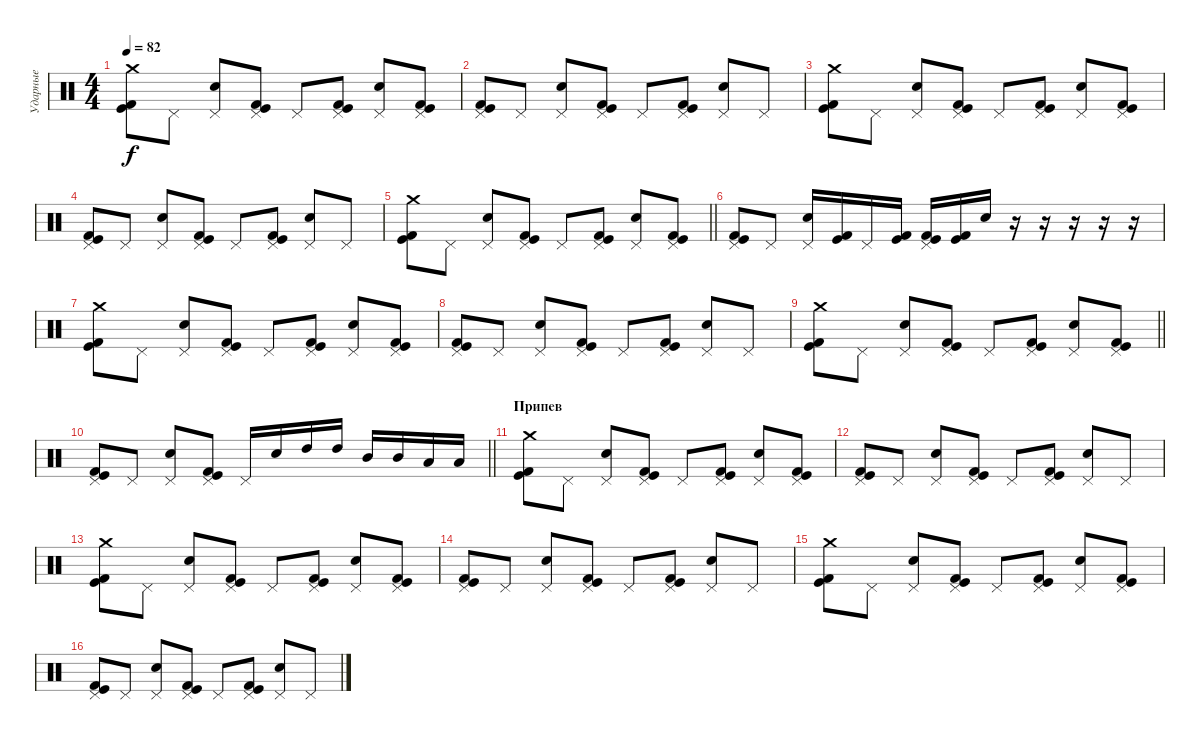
\track ("Ударные" "Ударные") {instrument percussion}
\staff {score}
\articulation defaults
\ts (4 4)
\tempo 82
\clef neutral
\ks c
("Crash medium (hit)" "Kick (hit)" "Kick (hit) 2").8{dy f} "Pedal Hi-Hat (hit)".8 ("Pedal Hi-Hat (hit)" "Electric Snare (hit)").8 ("Pedal Hi-Hat (hit)" "Kick (hit)" "Kick (hit) 2").8 "Pedal Hi-Hat (hit)".8 ("Pedal Hi-Hat (hit)" "Kick (hit)" "Kick (hit) 2").8 ("Pedal Hi-Hat (hit)" "Electric Snare (hit)").8 ("Pedal Hi-Hat (hit)" "Kick (hit)" "Kick (hit) 2").8 |
("Pedal Hi-Hat (hit)" "Kick (hit)" "Kick (hit) 2").8 "Pedal Hi-Hat (hit)".8 ("Pedal Hi-Hat (hit)" "Electric Snare (hit)").8 ("Pedal Hi-Hat (hit)" "Kick (hit)" "Kick (hit) 2").8 "Pedal Hi-Hat (hit)".8 ("Pedal Hi-Hat (hit)" "Kick (hit)" "Kick (hit) 2").8 ("Pedal Hi-Hat (hit)" "Electric Snare (hit)").8 "Pedal Hi-Hat (hit)".8 |
("Crash medium (hit)" "Kick (hit)" "Kick (hit) 2").8 "Pedal Hi-Hat (hit)".8 ("Pedal Hi-Hat (hit)" "Electric Snare (hit)").8 ("Pedal Hi-Hat (hit)" "Kick (hit)" "Kick (hit) 2").8 "Pedal Hi-Hat (hit)".8 ("Pedal Hi-Hat (hit)" "Kick (hit)" "Kick (hit) 2").8 ("Pedal Hi-Hat (hit)" "Electric Snare (hit)").8 ("Pedal Hi-Hat (hit)" "Kick (hit)" "Kick (hit) 2").8 |
("Pedal Hi-Hat (hit)" "Kick (hit)" "Kick (hit) 2").8 "Pedal Hi-Hat (hit)".8 ("Pedal Hi-Hat (hit)" "Electric Snare (hit)").8 ("Pedal Hi-Hat (hit)" "Kick (hit)" "Kick (hit) 2").8 "Pedal Hi-Hat (hit)".8 ("Pedal Hi-Hat (hit)" "Kick (hit)" "Kick (hit) 2").8 ("Pedal Hi-Hat (hit)" "Electric Snare (hit)").8 "Pedal Hi-Hat (hit)".8 |
\barLineRight lightlight
("Crash medium (hit)" "Kick (hit)" "Kick (hit) 2").8 "Pedal Hi-Hat (hit)".8 ("Pedal Hi-Hat (hit)" "Electric Snare (hit)").8 ("Pedal Hi-Hat (hit)" "Kick (hit)" "Kick (hit) 2").8 "Pedal Hi-Hat (hit)".8 ("Pedal Hi-Hat (hit)" "Kick (hit)" "Kick (hit) 2").8 ("Pedal Hi-Hat (hit)" "Electric Snare (hit)").8 ("Pedal Hi-Hat (hit)" "Kick (hit)" "Kick (hit) 2").8 |
("Pedal Hi-Hat (hit)" "Kick (hit)" "Kick (hit) 2").8 "Pedal Hi-Hat (hit)".8 ("Pedal Hi-Hat (hit)" "Electric Snare (hit)").16 ("Kick (hit)" "Kick (hit) 2").16 "Pedal Hi-Hat (hit)".16 ("Kick (hit)" "Kick (hit) 2").16 ("Pedal Hi-Hat (hit)" "Kick (hit)" "Kick (hit) 2").16 ("Kick (hit)" "Kick (hit) 2").16 "Electric Snare (hit)".16 r.16 r.16 r.16 r.16 r.16 |
("Crash medium (hit)" "Kick (hit)" "Kick (hit) 2").8 "Pedal Hi-Hat (hit)".8 ("Pedal Hi-Hat (hit)" "Electric Snare (hit)").8 ("Pedal Hi-Hat (hit)" "Kick (hit)" "Kick (hit) 2").8 "Pedal Hi-Hat (hit)".8 ("Pedal Hi-Hat (hit)" "Kick (hit)" "Kick (hit) 2").8 ("Pedal Hi-Hat (hit)" "Electric Snare (hit)").8 ("Pedal Hi-Hat (hit)" "Kick (hit)" "Kick (hit) 2").8 |
("Pedal Hi-Hat (hit)" "Kick (hit)" "Kick (hit) 2").8 "Pedal Hi-Hat (hit)".8 ("Pedal Hi-Hat (hit)" "Electric Snare (hit)").8 ("Pedal Hi-Hat (hit)" "Kick (hit)" "Kick (hit) 2").8 "Pedal Hi-Hat (hit)".8 ("Pedal Hi-Hat (hit)" "Kick (hit)" "Kick (hit) 2").8 ("Pedal Hi-Hat (hit)" "Electric Snare (hit)").8 "Pedal Hi-Hat (hit)".8 |
\barLineRight lightlight
("Crash medium (hit)" "Kick (hit)" "Kick (hit) 2").8 "Pedal Hi-Hat (hit)".8 ("Pedal Hi-Hat (hit)" "Electric Snare (hit)").8 ("Pedal Hi-Hat (hit)" "Kick (hit)" "Kick (hit) 2").8 "Pedal Hi-Hat (hit)".8 ("Pedal Hi-Hat (hit)" "Kick (hit)" "Kick (hit) 2").8 ("Pedal Hi-Hat (hit)" "Electric Snare (hit)").8 ("Pedal Hi-Hat (hit)" "Kick (hit)" "Kick (hit) 2").8 |
\barLineRight lightlight
("Pedal Hi-Hat (hit)" "Kick (hit)" "Kick (hit) 2").8 "Pedal Hi-Hat (hit)".8 ("Pedal Hi-Hat (hit)" "Electric Snare (hit)").8 ("Pedal Hi-Hat (hit)" "Kick (hit)" "Kick (hit) 2").8 "Pedal Hi-Hat (hit)".16 "Electric Snare (hit)".16 "High Tom (hit)".16 "High Tom (hit)".16 "Mid Tom (hit)".16 "Mid Tom (hit)".16 "Low Tom (hit)".16 "Low Tom (hit)".16 |
\section ("" "Припев")
("Crash medium (hit)" "Kick (hit)" "Kick (hit) 2").8 "Pedal Hi-Hat (hit)".8 ("Pedal Hi-Hat (hit)" "Electric Snare (hit)").8 ("Pedal Hi-Hat (hit)" "Kick (hit)" "Kick (hit) 2").8 "Pedal Hi-Hat (hit)".8 ("Pedal Hi-Hat (hit)" "Kick (hit)" "Kick (hit) 2").8 ("Pedal Hi-Hat (hit)" "Electric Snare (hit)").8 ("Pedal Hi-Hat (hit)" "Kick (hit)" "Kick (hit) 2").8 |
("Pedal Hi-Hat (hit)" "Kick (hit)" "Kick (hit) 2").8 "Pedal Hi-Hat (hit)".8 ("Pedal Hi-Hat (hit)" "Electric Snare (hit)").8 ("Pedal Hi-Hat (hit)" "Kick (hit)" "Kick (hit) 2").8 "Pedal Hi-Hat (hit)".8 ("Pedal Hi-Hat (hit)" "Kick (hit)" "Kick (hit) 2").8 ("Pedal Hi-Hat (hit)" "Electric Snare (hit)").8 "Pedal Hi-Hat (hit)".8 |
("Crash medium (hit)" "Kick (hit)" "Kick (hit) 2").8 "Pedal Hi-Hat (hit)".8 ("Pedal Hi-Hat (hit)" "Electric Snare (hit)").8 ("Pedal Hi-Hat (hit)" "Kick (hit)" "Kick (hit) 2").8 "Pedal Hi-Hat (hit)".8 ("Pedal Hi-Hat (hit)" "Kick (hit)" "Kick (hit) 2").8 ("Pedal Hi-Hat (hit)" "Electric Snare (hit)").8 ("Pedal Hi-Hat (hit)" "Kick (hit)" "Kick (hit) 2").8 |
("Pedal Hi-Hat (hit)" "Kick (hit)" "Kick (hit) 2").8 "Pedal Hi-Hat (hit)".8 ("Pedal Hi-Hat (hit)" "Electric Snare (hit)").8 ("Pedal Hi-Hat (hit)" "Kick (hit)" "Kick (hit) 2").8 "Pedal Hi-Hat (hit)".8 ("Pedal Hi-Hat (hit)" "Kick (hit)" "Kick (hit) 2").8 ("Pedal Hi-Hat (hit)" "Electric Snare (hit)").8 "Pedal Hi-Hat (hit)".8 |
("Crash medium (hit)" "Kick (hit)" "Kick (hit) 2").8 "Pedal Hi-Hat (hit)".8 ("Pedal Hi-Hat (hit)" "Electric Snare (hit)").8 ("Pedal Hi-Hat (hit)" "Kick (hit)" "Kick (hit) 2").8 "Pedal Hi-Hat (hit)".8 ("Pedal Hi-Hat (hit)" "Kick (hit)" "Kick (hit) 2").8 ("Pedal Hi-Hat (hit)" "Electric Snare (hit)").8 ("Pedal Hi-Hat (hit)" "Kick (hit)" "Kick (hit) 2").8 |
("Pedal Hi-Hat (hit)" "Kick (hit)" "Kick (hit) 2").8 "Pedal Hi-Hat (hit)".8 ("Pedal Hi-Hat (hit)" "Electric Snare (hit)").8 ("Pedal Hi-Hat (hit)" "Kick (hit)" "Kick (hit) 2").8 "Pedal Hi-Hat (hit)".8 ("Pedal Hi-Hat (hit)" "Kick (hit)" "Kick (hit) 2").8 ("Pedal Hi-Hat (hit)" "Electric Snare (hit)").8 "Pedal Hi-Hat (hit)".8
